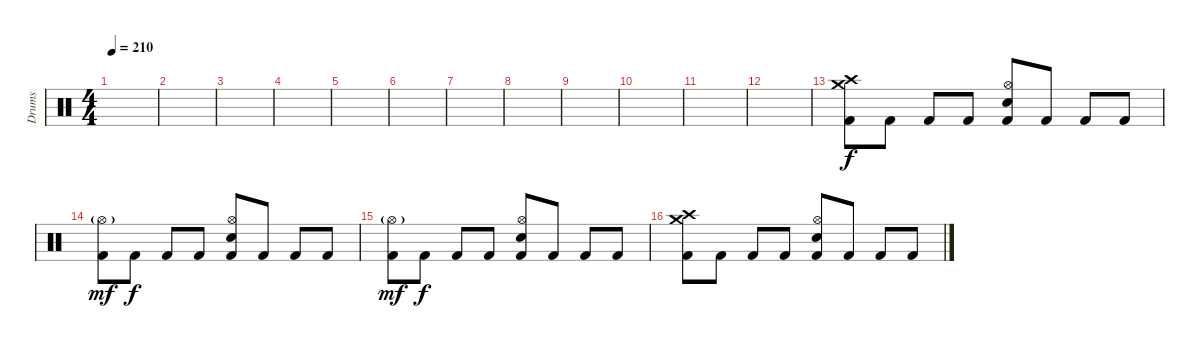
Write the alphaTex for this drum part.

\track ("Drums" "Drums") {instrument percussion}
\staff {score}
\articulation defaults
\ts (4 4)
\tempo 210
\clef neutral
\ks c
|
|
|
|
|
|
|
|
|
|
|
|
("Crash high (hit)" "Crash medium (hit)" "Kick (hit) 2").8 "Kick (hit) 2".8 "Kick (hit) 2".8 "Kick (hit) 2".8 ("Hi-Hat (open)" "Electric Snare (hit)" "Kick (hit) 2").8 "Kick (hit) 2".8 "Kick (hit) 2".8 "Kick (hit) 2".8 |
("Hi-Hat (open)"{g} "Kick (hit) 2").8{dy mf} "Kick (hit) 2".8{dy f} "Kick (hit) 2".8 "Kick (hit) 2".8 ("Hi-Hat (open)" "Electric Snare (hit)" "Kick (hit) 2").8 "Kick (hit) 2".8 "Kick (hit) 2".8 "Kick (hit) 2".8 |
("Hi-Hat (open)"{g} "Kick (hit) 2").8{dy mf} "Kick (hit) 2".8{dy f} "Kick (hit) 2".8 "Kick (hit) 2".8 ("Hi-Hat (open)" "Electric Snare (hit)" "Kick (hit) 2").8 "Kick (hit) 2".8 "Kick (hit) 2".8 "Kick (hit) 2".8 |
("Crash high (hit)" "Crash medium (hit)" "Kick (hit) 2").8 "Kick (hit) 2".8 "Kick (hit) 2".8 "Kick (hit) 2".8 ("Hi-Hat (open)" "Electric Snare (hit)" "Kick (hit) 2").8 "Kick (hit) 2".8 "Kick (hit) 2".8 "Kick (hit) 2".8
